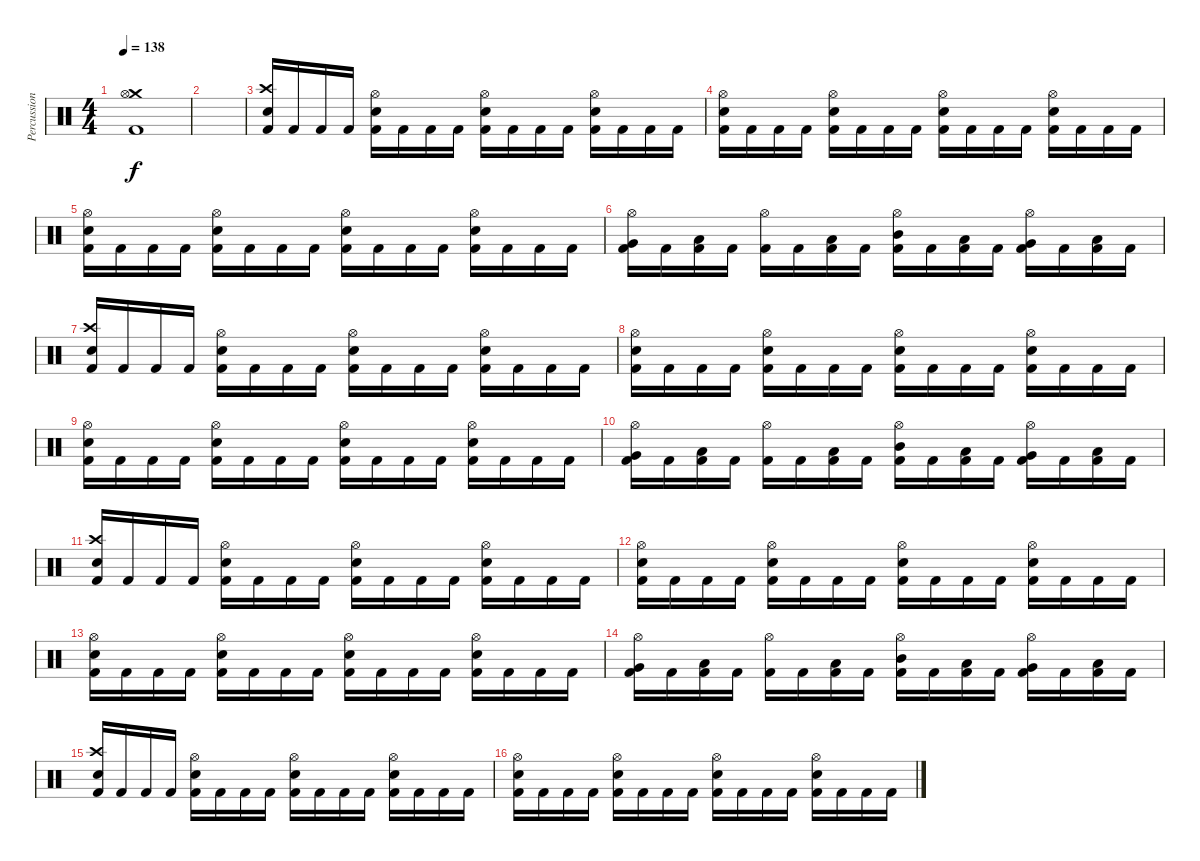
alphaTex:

\track ("Percussion" "Percussion") {instrument percussion}
\staff {score}
\articulation defaults
\ts (4 4)
\tempo 138
\clef neutral
\ks c
("Crash medium (hit)" "Hi-Hat (open)" "Kick (hit) 2").1{dy f} |
|
("Crash high (hit)" "Electric Snare (hit)" "Kick (hit) 2").16 "Kick (hit) 2".16 "Kick (hit) 2".16 "Kick (hit) 2".16 ("Hi-Hat (open)" "Electric Snare (hit)" "Kick (hit) 2").16 "Kick (hit) 2".16 "Kick (hit) 2".16 "Kick (hit) 2".16 ("Hi-Hat (open)" "Electric Snare (hit)" "Kick (hit) 2").16 "Kick (hit) 2".16 "Kick (hit) 2".16 "Kick (hit) 2".16 ("Hi-Hat (open)" "Electric Snare (hit)" "Kick (hit) 2").16 "Kick (hit) 2".16 "Kick (hit) 2".16 "Kick (hit) 2".16 |
("Hi-Hat (open)" "Electric Snare (hit)" "Kick (hit) 2").16 "Kick (hit) 2".16 "Kick (hit) 2".16 "Kick (hit) 2".16 ("Hi-Hat (open)" "Electric Snare (hit)" "Kick (hit) 2").16 "Kick (hit) 2".16 "Kick (hit) 2".16 "Kick (hit) 2".16 ("Hi-Hat (open)" "Electric Snare (hit)" "Kick (hit) 2").16 "Kick (hit) 2".16 "Kick (hit) 2".16 "Kick (hit) 2".16 ("Hi-Hat (open)" "Electric Snare (hit)" "Kick (hit) 2").16 "Kick (hit) 2".16 "Kick (hit) 2".16 "Kick (hit) 2".16 |
("Hi-Hat (open)" "Electric Snare (hit)" "Kick (hit) 2").16 "Kick (hit) 2".16 "Kick (hit) 2".16 "Kick (hit) 2".16 ("Hi-Hat (open)" "Electric Snare (hit)" "Kick (hit) 2").16 "Kick (hit) 2".16 "Kick (hit) 2".16 "Kick (hit) 2".16 ("Hi-Hat (open)" "Electric Snare (hit)" "Kick (hit) 2").16 "Kick (hit) 2".16 "Kick (hit) 2".16 "Kick (hit) 2".16 ("Hi-Hat (open)" "Electric Snare (hit)" "Kick (hit) 2").16 "Kick (hit) 2".16 "Kick (hit) 2".16 "Kick (hit) 2".16 |
("Hi-Hat (open)" "Very Low Tom (hit)" "Kick (hit) 2").16 "Kick (hit) 2".16 ("Low Tom (hit)" "Kick (hit) 2").16 "Kick (hit) 2".16 ("Hi-Hat (open)" "Kick (hit) 2").16 "Kick (hit) 2".16 ("Low Floor Tom (hit)" "Kick (hit) 2").16 "Kick (hit) 2".16 ("Hi-Hat (open)" "Mid Tom (hit)" "Kick (hit) 2").16 "Kick (hit) 2".16 ("Low Tom (hit)" "Kick (hit) 2").16 "Kick (hit) 2".16 ("Hi-Hat (open)" "Very Low Tom (hit)" "Kick (hit) 2").16 "Kick (hit) 2".16 ("Low Tom (hit)" "Kick (hit) 2").16 "Kick (hit) 2".16 |
("Crash high (hit)" "Electric Snare (hit)" "Kick (hit) 2").16 "Kick (hit) 2".16 "Kick (hit) 2".16 "Kick (hit) 2".16 ("Hi-Hat (open)" "Electric Snare (hit)" "Kick (hit) 2").16 "Kick (hit) 2".16 "Kick (hit) 2".16 "Kick (hit) 2".16 ("Hi-Hat (open)" "Electric Snare (hit)" "Kick (hit) 2").16 "Kick (hit) 2".16 "Kick (hit) 2".16 "Kick (hit) 2".16 ("Hi-Hat (open)" "Electric Snare (hit)" "Kick (hit) 2").16 "Kick (hit) 2".16 "Kick (hit) 2".16 "Kick (hit) 2".16 |
("Hi-Hat (open)" "Electric Snare (hit)" "Kick (hit) 2").16 "Kick (hit) 2".16 "Kick (hit) 2".16 "Kick (hit) 2".16 ("Hi-Hat (open)" "Electric Snare (hit)" "Kick (hit) 2").16 "Kick (hit) 2".16 "Kick (hit) 2".16 "Kick (hit) 2".16 ("Hi-Hat (open)" "Electric Snare (hit)" "Kick (hit) 2").16 "Kick (hit) 2".16 "Kick (hit) 2".16 "Kick (hit) 2".16 ("Hi-Hat (open)" "Electric Snare (hit)" "Kick (hit) 2").16 "Kick (hit) 2".16 "Kick (hit) 2".16 "Kick (hit) 2".16 |
("Hi-Hat (open)" "Electric Snare (hit)" "Kick (hit) 2").16 "Kick (hit) 2".16 "Kick (hit) 2".16 "Kick (hit) 2".16 ("Hi-Hat (open)" "Electric Snare (hit)" "Kick (hit) 2").16 "Kick (hit) 2".16 "Kick (hit) 2".16 "Kick (hit) 2".16 ("Hi-Hat (open)" "Electric Snare (hit)" "Kick (hit) 2").16 "Kick (hit) 2".16 "Kick (hit) 2".16 "Kick (hit) 2".16 ("Hi-Hat (open)" "Electric Snare (hit)" "Kick (hit) 2").16 "Kick (hit) 2".16 "Kick (hit) 2".16 "Kick (hit) 2".16 |
("Hi-Hat (open)" "Very Low Tom (hit)" "Kick (hit) 2").16 "Kick (hit) 2".16 ("Low Tom (hit)" "Kick (hit) 2").16 "Kick (hit) 2".16 ("Hi-Hat (open)" "Kick (hit) 2").16 "Kick (hit) 2".16 ("Low Floor Tom (hit)" "Kick (hit) 2").16 "Kick (hit) 2".16 ("Hi-Hat (open)" "Mid Tom (hit)" "Kick (hit) 2").16 "Kick (hit) 2".16 ("Low Tom (hit)" "Kick (hit) 2").16 "Kick (hit) 2".16 ("Hi-Hat (open)" "Very Low Tom (hit)" "Kick (hit) 2").16 "Kick (hit) 2".16 ("Low Tom (hit)" "Kick (hit) 2").16 "Kick (hit) 2".16 |
("Crash high (hit)" "Electric Snare (hit)" "Kick (hit) 2").16 "Kick (hit) 2".16 "Kick (hit) 2".16 "Kick (hit) 2".16 ("Hi-Hat (open)" "Electric Snare (hit)" "Kick (hit) 2").16 "Kick (hit) 2".16 "Kick (hit) 2".16 "Kick (hit) 2".16 ("Hi-Hat (open)" "Electric Snare (hit)" "Kick (hit) 2").16 "Kick (hit) 2".16 "Kick (hit) 2".16 "Kick (hit) 2".16 ("Hi-Hat (open)" "Electric Snare (hit)" "Kick (hit) 2").16 "Kick (hit) 2".16 "Kick (hit) 2".16 "Kick (hit) 2".16 |
("Hi-Hat (open)" "Electric Snare (hit)" "Kick (hit) 2").16 "Kick (hit) 2".16 "Kick (hit) 2".16 "Kick (hit) 2".16 ("Hi-Hat (open)" "Electric Snare (hit)" "Kick (hit) 2").16 "Kick (hit) 2".16 "Kick (hit) 2".16 "Kick (hit) 2".16 ("Hi-Hat (open)" "Electric Snare (hit)" "Kick (hit) 2").16 "Kick (hit) 2".16 "Kick (hit) 2".16 "Kick (hit) 2".16 ("Hi-Hat (open)" "Electric Snare (hit)" "Kick (hit) 2").16 "Kick (hit) 2".16 "Kick (hit) 2".16 "Kick (hit) 2".16 |
("Hi-Hat (open)" "Electric Snare (hit)" "Kick (hit) 2").16 "Kick (hit) 2".16 "Kick (hit) 2".16 "Kick (hit) 2".16 ("Hi-Hat (open)" "Electric Snare (hit)" "Kick (hit) 2").16 "Kick (hit) 2".16 "Kick (hit) 2".16 "Kick (hit) 2".16 ("Hi-Hat (open)" "Electric Snare (hit)" "Kick (hit) 2").16 "Kick (hit) 2".16 "Kick (hit) 2".16 "Kick (hit) 2".16 ("Hi-Hat (open)" "Electric Snare (hit)" "Kick (hit) 2").16 "Kick (hit) 2".16 "Kick (hit) 2".16 "Kick (hit) 2".16 |
("Hi-Hat (open)" "Very Low Tom (hit)" "Kick (hit) 2").16 "Kick (hit) 2".16 ("Low Tom (hit)" "Kick (hit) 2").16 "Kick (hit) 2".16 ("Hi-Hat (open)" "Kick (hit) 2").16 "Kick (hit) 2".16 ("Low Floor Tom (hit)" "Kick (hit) 2").16 "Kick (hit) 2".16 ("Hi-Hat (open)" "Mid Tom (hit)" "Kick (hit) 2").16 "Kick (hit) 2".16 ("Low Tom (hit)" "Kick (hit) 2").16 "Kick (hit) 2".16 ("Hi-Hat (open)" "Very Low Tom (hit)" "Kick (hit) 2").16 "Kick (hit) 2".16 ("Low Tom (hit)" "Kick (hit) 2").16 "Kick (hit) 2".16 |
("Crash high (hit)" "Electric Snare (hit)" "Kick (hit) 2").16 "Kick (hit) 2".16 "Kick (hit) 2".16 "Kick (hit) 2".16 ("Hi-Hat (open)" "Electric Snare (hit)" "Kick (hit) 2").16 "Kick (hit) 2".16 "Kick (hit) 2".16 "Kick (hit) 2".16 ("Hi-Hat (open)" "Electric Snare (hit)" "Kick (hit) 2").16 "Kick (hit) 2".16 "Kick (hit) 2".16 "Kick (hit) 2".16 ("Hi-Hat (open)" "Electric Snare (hit)" "Kick (hit) 2").16 "Kick (hit) 2".16 "Kick (hit) 2".16 "Kick (hit) 2".16 |
("Hi-Hat (open)" "Electric Snare (hit)" "Kick (hit) 2").16 "Kick (hit) 2".16 "Kick (hit) 2".16 "Kick (hit) 2".16 ("Hi-Hat (open)" "Electric Snare (hit)" "Kick (hit) 2").16 "Kick (hit) 2".16 "Kick (hit) 2".16 "Kick (hit) 2".16 ("Hi-Hat (open)" "Electric Snare (hit)" "Kick (hit) 2").16 "Kick (hit) 2".16 "Kick (hit) 2".16 "Kick (hit) 2".16 ("Hi-Hat (open)" "Electric Snare (hit)" "Kick (hit) 2").16 "Kick (hit) 2".16 "Kick (hit) 2".16 "Kick (hit) 2".16
